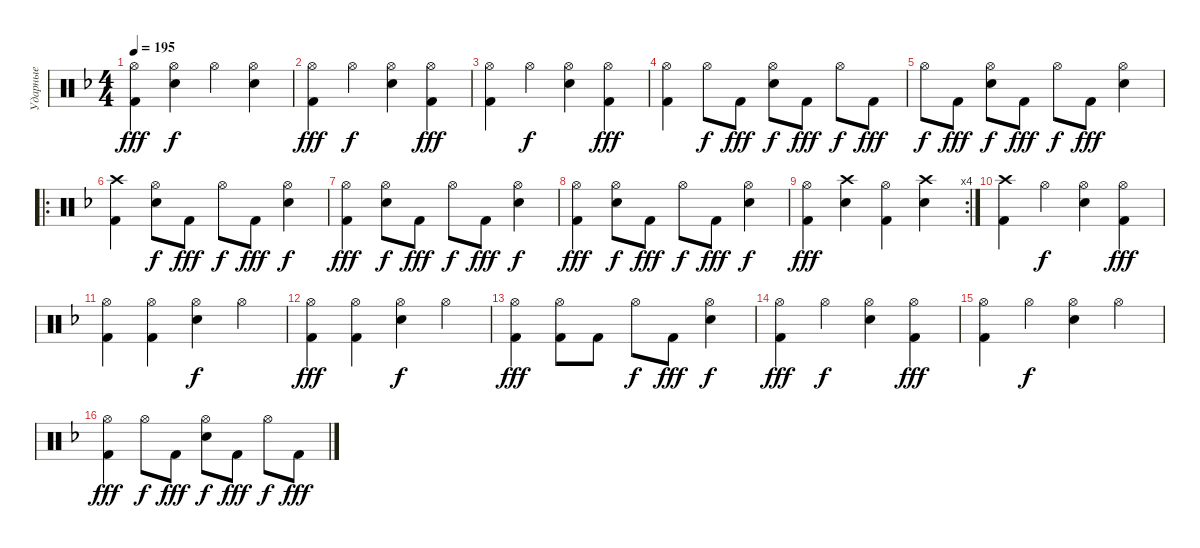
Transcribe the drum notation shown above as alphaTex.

\track ("Ударные" "Ударные") {instrument percussion}
\staff {score}
\articulation defaults
\ts (4 4)
\tempo 195
\clef neutral
\ks f
("Kick (hit) 2" "Hi-Hat (open)").4{dy fff} ("Snare (hit) 2" "Hi-Hat (open)").4{dy f} "Hi-Hat (open)".4 ("Snare (hit) 2" "Hi-Hat (open)").4 |
("Kick (hit) 2" "Hi-Hat (open)").4{dy fff} "Hi-Hat (open)".4{dy f} ("Snare (hit) 2" "Hi-Hat (open)").4 ("Kick (hit) 2" "Hi-Hat (open)").4{dy fff} |
("Kick (hit) 2" "Hi-Hat (open)").4 "Hi-Hat (open)".4{dy f} ("Snare (hit) 2" "Hi-Hat (open)").4 ("Kick (hit) 2" "Hi-Hat (open)").4{dy fff} |
("Kick (hit) 2" "Hi-Hat (open)").4 "Hi-Hat (open)".8{dy f} "Kick (hit) 2".8{dy fff} ("Snare (hit) 2" "Hi-Hat (open)").8{dy f} "Kick (hit) 2".8{dy fff} "Hi-Hat (open)".8{dy f} "Kick (hit) 2".8{dy fff} |
"Hi-Hat (open)".8{dy f} "Kick (hit) 2".8{dy fff} ("Snare (hit) 2" "Hi-Hat (open)").8{dy f} "Kick (hit) 2".8{dy fff} "Hi-Hat (open)".8{dy f} "Kick (hit) 2".8{dy fff} ("Snare (hit) 2" "Hi-Hat (open)").4 |
\ro
("Kick (hit) 2" "Crash high (hit)").4 ("Snare (hit) 2" "Hi-Hat (open)").8{dy f} "Kick (hit) 2".8{dy fff} "Hi-Hat (open)".8{dy f} "Kick (hit) 2".8{dy fff} ("Snare (hit) 2" "Hi-Hat (open)").4{dy f} |
("Kick (hit) 2" "Hi-Hat (open)").4{dy fff} ("Snare (hit) 2" "Hi-Hat (open)").8{dy f} "Kick (hit) 2".8{dy fff} "Hi-Hat (open)".8{dy f} "Kick (hit) 2".8{dy fff} ("Snare (hit) 2" "Hi-Hat (open)").4{dy f} |
("Kick (hit) 2" "Hi-Hat (open)").4{dy fff} ("Snare (hit) 2" "Hi-Hat (open)").8{dy f} "Kick (hit) 2".8{dy fff} "Hi-Hat (open)".8{dy f} "Kick (hit) 2".8{dy fff} ("Snare (hit) 2" "Hi-Hat (open)").4{dy f} |
\rc 4
("Kick (hit) 2" "Hi-Hat (open)").4{dy fff} ("Snare (hit) 2" "Crash high (hit)").4 ("Kick (hit) 2" "Hi-Hat (open)").4 ("Snare (hit) 2" "Crash high (hit)").4 |
("Kick (hit) 2" "Crash high (hit)").4 "Hi-Hat (open)".4{dy f} ("Snare (hit) 2" "Hi-Hat (open)").4 ("Kick (hit) 2" "Hi-Hat (open)").4{dy fff} |
("Kick (hit) 2" "Hi-Hat (open)").4 ("Kick (hit) 2" "Hi-Hat (open)").4 ("Snare (hit) 2" "Hi-Hat (open)").4{dy f} "Hi-Hat (open)".4 |
("Kick (hit) 2" "Hi-Hat (open)").4{dy fff} ("Kick (hit) 2" "Hi-Hat (open)").4 ("Snare (hit) 2" "Hi-Hat (open)").4{dy f} "Hi-Hat (open)".4 |
("Kick (hit) 2" "Hi-Hat (open)").4{dy fff} ("Kick (hit) 2" "Hi-Hat (open)").8 "Kick (hit) 2".8 "Hi-Hat (open)".8{dy f} "Kick (hit) 2".8{dy fff} ("Snare (hit) 2" "Hi-Hat (open)").4{dy f} |
("Kick (hit) 2" "Hi-Hat (open)").4{dy fff} "Hi-Hat (open)".4{dy f} ("Snare (hit) 2" "Hi-Hat (open)").4 ("Kick (hit) 2" "Hi-Hat (open)").4{dy fff} |
("Kick (hit) 2" "Hi-Hat (open)").4 "Hi-Hat (open)".4{dy f} ("Snare (hit) 2" "Hi-Hat (open)").4 "Hi-Hat (open)".4 |
("Kick (hit) 2" "Hi-Hat (open)").4{dy fff} "Hi-Hat (open)".8{dy f} "Kick (hit) 2".8{dy fff} ("Snare (hit) 2" "Hi-Hat (open)").8{dy f} "Kick (hit) 2".8{dy fff} "Hi-Hat (open)".8{dy f} "Kick (hit) 2".8{dy fff}
